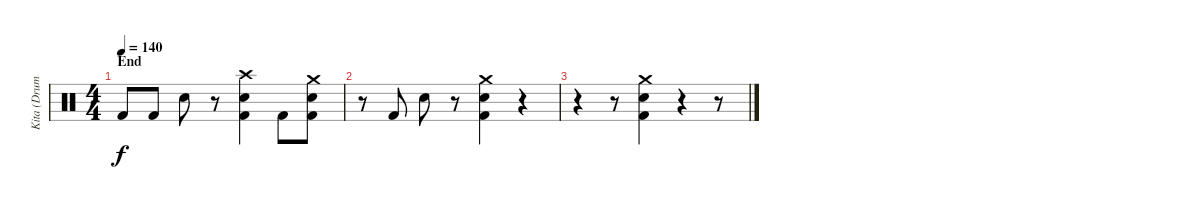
\track ("Kita (Drums)" "Kita (Drum") {instrument percussion}
\staff {score}
\articulation defaults
\ts (4 4)
\section ("" "End")
\tempo 140
\clef neutral
\ks c "Kick (hit) 2".8{dy f} "Kick (hit) 2".8 "Snare (hit) 2".8
r.8 ("Crash high (hit)" "Snare (hit) 2" "Kick (hit) 2").4 "Kick (hit) 2".8 ("Crash medium (hit)" "Snare (hit) 2" "Kick (hit) 2").8 |
r.8 "Kick (hit) 2".8 "Snare (hit) 2".8 r.8 ("Crash medium (hit)" "Snare (hit) 2" "Kick (hit) 2").4 r.4 |
r.4 r.8 ("Crash medium (hit)" "Snare (hit) 2" "Kick (hit) 2").4 r.4 r.8
